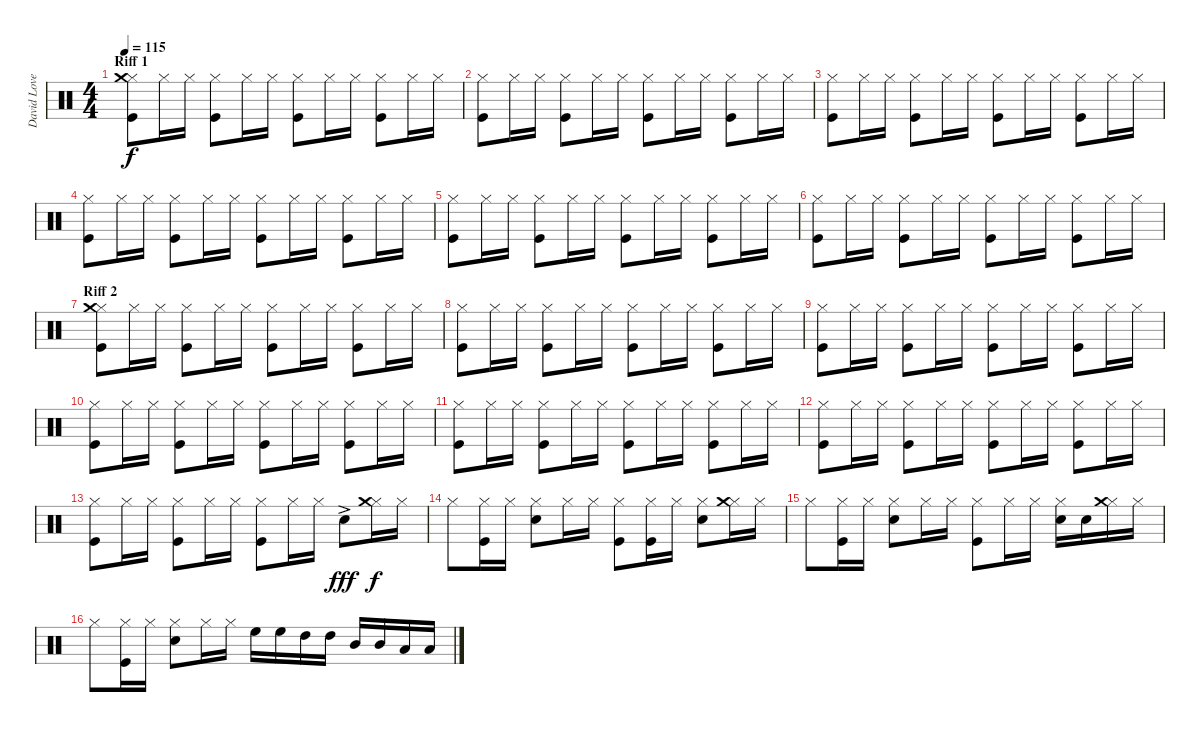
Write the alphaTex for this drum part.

\track ("David Lovering" "David Love") {instrument percussion}
\staff {score}
\articulation defaults
\ts (4 4)
\section ("" "Riff 1")
\tempo 115
\clef neutral
\ks c
("Hi-Hat (closed)" "Crash medium (hit)" "Kick (hit)").8{dy f} "Hi-Hat (closed)".16 "Hi-Hat (closed)".16 ("Hi-Hat (closed)" "Kick (hit)").8 "Hi-Hat (closed)".16 "Hi-Hat (closed)".16 ("Hi-Hat (closed)" "Kick (hit)").8 "Hi-Hat (closed)".16 "Hi-Hat (closed)".16 ("Hi-Hat (closed)" "Kick (hit)").8 "Hi-Hat (closed)".16 "Hi-Hat (closed)".16 |
("Hi-Hat (closed)" "Kick (hit)").8 "Hi-Hat (closed)".16 "Hi-Hat (closed)".16 ("Hi-Hat (closed)" "Kick (hit)").8 "Hi-Hat (closed)".16 "Hi-Hat (closed)".16 ("Hi-Hat (closed)" "Kick (hit)").8 "Hi-Hat (closed)".16 "Hi-Hat (closed)".16 ("Hi-Hat (closed)" "Kick (hit)").8 "Hi-Hat (closed)".16 "Hi-Hat (closed)".16 |
("Hi-Hat (closed)" "Kick (hit)").8 "Hi-Hat (closed)".16 "Hi-Hat (closed)".16 ("Hi-Hat (closed)" "Kick (hit)").8 "Hi-Hat (closed)".16 "Hi-Hat (closed)".16 ("Hi-Hat (closed)" "Kick (hit)").8 "Hi-Hat (closed)".16 "Hi-Hat (closed)".16 ("Hi-Hat (closed)" "Kick (hit)").8 "Hi-Hat (closed)".16 "Hi-Hat (closed)".16 |
("Hi-Hat (closed)" "Kick (hit)").8 "Hi-Hat (closed)".16 "Hi-Hat (closed)".16 ("Hi-Hat (closed)" "Kick (hit)").8 "Hi-Hat (closed)".16 "Hi-Hat (closed)".16 ("Hi-Hat (closed)" "Kick (hit)").8 "Hi-Hat (closed)".16 "Hi-Hat (closed)".16 ("Hi-Hat (closed)" "Kick (hit)").8 "Hi-Hat (closed)".16 "Hi-Hat (closed)".16 |
("Hi-Hat (closed)" "Kick (hit)").8 "Hi-Hat (closed)".16 "Hi-Hat (closed)".16 ("Hi-Hat (closed)" "Kick (hit)").8 "Hi-Hat (closed)".16 "Hi-Hat (closed)".16 ("Hi-Hat (closed)" "Kick (hit)").8 "Hi-Hat (closed)".16 "Hi-Hat (closed)".16 ("Hi-Hat (closed)" "Kick (hit)").8 "Hi-Hat (closed)".16 "Hi-Hat (closed)".16 |
("Hi-Hat (closed)" "Kick (hit)").8 "Hi-Hat (closed)".16 "Hi-Hat (closed)".16 ("Hi-Hat (closed)" "Kick (hit)").8 "Hi-Hat (closed)".16 "Hi-Hat (closed)".16 ("Hi-Hat (closed)" "Kick (hit)").8 "Hi-Hat (closed)".16 "Hi-Hat (closed)".16 ("Hi-Hat (closed)" "Kick (hit)").8 "Hi-Hat (closed)".16 "Hi-Hat (closed)".16 |
\section ("" "Riff 2")
("Hi-Hat (closed)" "Crash medium (hit)" "Kick (hit)").8 "Hi-Hat (closed)".16 "Hi-Hat (closed)".16 ("Hi-Hat (closed)" "Kick (hit)").8 "Hi-Hat (closed)".16 "Hi-Hat (closed)".16 ("Hi-Hat (closed)" "Kick (hit)").8 "Hi-Hat (closed)".16 "Hi-Hat (closed)".16 ("Hi-Hat (closed)" "Kick (hit)").8 "Hi-Hat (closed)".16 "Hi-Hat (closed)".16 |
("Hi-Hat (closed)" "Kick (hit)").8 "Hi-Hat (closed)".16 "Hi-Hat (closed)".16 ("Hi-Hat (closed)" "Kick (hit)").8 "Hi-Hat (closed)".16 "Hi-Hat (closed)".16 ("Hi-Hat (closed)" "Kick (hit)").8 "Hi-Hat (closed)".16 "Hi-Hat (closed)".16 ("Hi-Hat (closed)" "Kick (hit)").8 "Hi-Hat (closed)".16 "Hi-Hat (closed)".16 |
("Hi-Hat (closed)" "Kick (hit)").8 "Hi-Hat (closed)".16 "Hi-Hat (closed)".16 ("Hi-Hat (closed)" "Kick (hit)").8 "Hi-Hat (closed)".16 "Hi-Hat (closed)".16 ("Hi-Hat (closed)" "Kick (hit)").8 "Hi-Hat (closed)".16 "Hi-Hat (closed)".16 ("Hi-Hat (closed)" "Kick (hit)").8 "Hi-Hat (closed)".16 "Hi-Hat (closed)".16 |
("Hi-Hat (closed)" "Kick (hit)").8 "Hi-Hat (closed)".16 "Hi-Hat (closed)".16 ("Hi-Hat (closed)" "Kick (hit)").8 "Hi-Hat (closed)".16 "Hi-Hat (closed)".16 ("Hi-Hat (closed)" "Kick (hit)").8 "Hi-Hat (closed)".16 "Hi-Hat (closed)".16 ("Hi-Hat (closed)" "Kick (hit)").8 "Hi-Hat (closed)".16 "Hi-Hat (closed)".16 |
("Hi-Hat (closed)" "Kick (hit)").8 "Hi-Hat (closed)".16 "Hi-Hat (closed)".16 ("Hi-Hat (closed)" "Kick (hit)").8 "Hi-Hat (closed)".16 "Hi-Hat (closed)".16 ("Hi-Hat (closed)" "Kick (hit)").8 "Hi-Hat (closed)".16 "Hi-Hat (closed)".16 ("Hi-Hat (closed)" "Kick (hit)").8 "Hi-Hat (closed)".16 "Hi-Hat (closed)".16 |
("Hi-Hat (closed)" "Kick (hit)").8 "Hi-Hat (closed)".16 "Hi-Hat (closed)".16 ("Hi-Hat (closed)" "Kick (hit)").8 "Hi-Hat (closed)".16 "Hi-Hat (closed)".16 ("Hi-Hat (closed)" "Kick (hit)").8 "Hi-Hat (closed)".16 "Hi-Hat (closed)".16 ("Hi-Hat (closed)" "Kick (hit)").8 "Hi-Hat (closed)".16 "Hi-Hat (closed)".16 |
("Hi-Hat (closed)" "Kick (hit)").8 "Hi-Hat (closed)".16 "Hi-Hat (closed)".16 ("Hi-Hat (closed)" "Kick (hit)").8 "Hi-Hat (closed)".16 "Hi-Hat (closed)".16 ("Hi-Hat (closed)" "Kick (hit)").8 "Hi-Hat (closed)".16 "Hi-Hat (closed)".16 "Snare (hit) 2"{ac}.8{dy fff} ("Hi-Hat (closed)" "Crash medium (hit)").16{dy f} "Hi-Hat (closed)".16 |
"Hi-Hat (closed)".8 ("Hi-Hat (closed)" "Kick (hit)").16 "Hi-Hat (closed)".16 ("Hi-Hat (closed)" "Snare (hit) 2").8 "Hi-Hat (closed)".16 "Hi-Hat (closed)".16 ("Hi-Hat (closed)" "Kick (hit)").8 ("Hi-Hat (closed)" "Kick (hit)").16 "Hi-Hat (closed)".16 ("Hi-Hat (closed)" "Snare (hit) 2").8 ("Hi-Hat (closed)" "Crash medium (hit)").16 "Hi-Hat (closed)".16 |
"Hi-Hat (closed)".8 ("Hi-Hat (closed)" "Kick (hit)").16 "Hi-Hat (closed)".16 ("Hi-Hat (closed)" "Snare (hit) 2").8 "Hi-Hat (closed)".16 "Hi-Hat (closed)".16 ("Hi-Hat (closed)" "Kick (hit)").8 "Hi-Hat (closed)".16 "Hi-Hat (closed)".16 ("Hi-Hat (closed)" "Snare (hit) 2").16 "Snare (hit) 2".16 ("Hi-Hat (closed)" "Crash medium (hit)").16 "Hi-Hat (closed)".16 |
"Hi-Hat (closed)".8 ("Hi-Hat (closed)" "Kick (hit)").16 "Hi-Hat (closed)".16 ("Hi-Hat (closed)" "Snare (hit) 2").8 "Hi-Hat (closed)".16 "Hi-Hat (closed)".16 "High Floor Tom (hit)".16 "High Floor Tom (hit)".16 "High Tom (hit)".16 "High Tom (hit)".16 "Mid Tom (hit)".16 "Mid Tom (hit)".16 "Low Tom (hit)".16 "Low Tom (hit)".16
